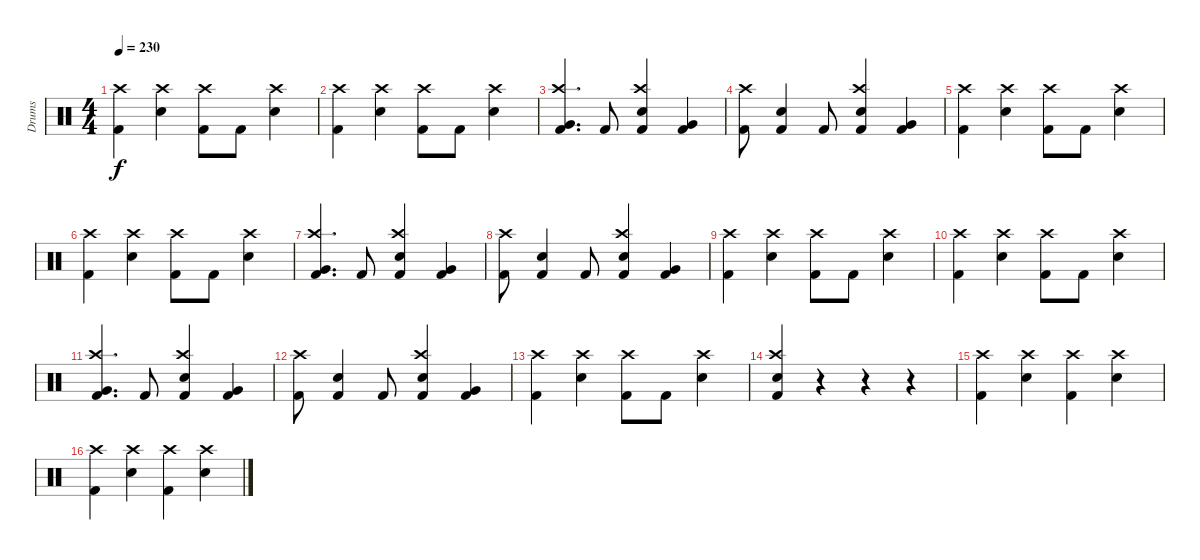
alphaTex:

\track ("Drums" "Drums") {instrument percussion}
\staff {score}
\articulation defaults
\ts (4 4)
\tempo 230
\clef neutral
\ks c
("Kick (hit) 2" "Crash high (hit)").4{dy f} ("Snare (hit) 2" "Crash high (hit)").4 ("Kick (hit) 2" "Crash high (hit)").8 "Kick (hit) 2".8 ("Snare (hit) 2" "Crash high (hit)").4 |
("Kick (hit) 2" "Crash high (hit)").4 ("Snare (hit) 2" "Crash high (hit)").4 ("Kick (hit) 2" "Crash high (hit)").8 "Kick (hit) 2".8 ("Snare (hit) 2" "Crash high (hit)").4 |
("Very Low Tom (hit)" "Kick (hit) 2" "Crash high (hit)").4{d} "Kick (hit) 2".8 ("Snare (hit) 2" "Kick (hit) 2" "Crash high (hit)").4 ("Very Low Tom (hit)" "Kick (hit) 2").4 |
("Kick (hit) 2" "Crash high (hit)").8 ("Snare (hit) 2" "Kick (hit) 2").4 "Kick (hit) 2".8 ("Snare (hit) 2" "Kick (hit) 2" "Crash high (hit)").4 ("Very Low Tom (hit)" "Kick (hit) 2").4 |
("Kick (hit) 2" "Crash high (hit)").4 ("Snare (hit) 2" "Crash high (hit)").4 ("Kick (hit) 2" "Crash high (hit)").8 "Kick (hit) 2".8 ("Snare (hit) 2" "Crash high (hit)").4 |
("Kick (hit) 2" "Crash high (hit)").4 ("Snare (hit) 2" "Crash high (hit)").4 ("Kick (hit) 2" "Crash high (hit)").8 "Kick (hit) 2".8 ("Snare (hit) 2" "Crash high (hit)").4 |
("Very Low Tom (hit)" "Kick (hit) 2" "Crash high (hit)").4{d} "Kick (hit) 2".8 ("Snare (hit) 2" "Kick (hit) 2" "Crash high (hit)").4 ("Very Low Tom (hit)" "Kick (hit) 2").4 |
("Kick (hit) 2" "Crash high (hit)").8 ("Snare (hit) 2" "Kick (hit) 2").4 "Kick (hit) 2".8 ("Snare (hit) 2" "Kick (hit) 2" "Crash high (hit)").4 ("Very Low Tom (hit)" "Kick (hit) 2").4 |
("Kick (hit) 2" "Crash high (hit)").4 ("Snare (hit) 2" "Crash high (hit)").4 ("Kick (hit) 2" "Crash high (hit)").8 "Kick (hit) 2".8 ("Snare (hit) 2" "Crash high (hit)").4 |
("Kick (hit) 2" "Crash high (hit)").4 ("Snare (hit) 2" "Crash high (hit)").4 ("Kick (hit) 2" "Crash high (hit)").8 "Kick (hit) 2".8 ("Snare (hit) 2" "Crash high (hit)").4 |
("Very Low Tom (hit)" "Kick (hit) 2" "Crash high (hit)").4{d} "Kick (hit) 2".8 ("Snare (hit) 2" "Kick (hit) 2" "Crash high (hit)").4 ("Very Low Tom (hit)" "Kick (hit) 2").4 |
("Kick (hit) 2" "Crash high (hit)").8 ("Snare (hit) 2" "Kick (hit) 2").4 "Kick (hit) 2".8 ("Snare (hit) 2" "Kick (hit) 2" "Crash high (hit)").4 ("Very Low Tom (hit)" "Kick (hit) 2").4 |
("Kick (hit) 2" "Crash high (hit)").4 ("Snare (hit) 2" "Crash high (hit)").4 ("Kick (hit) 2" "Crash high (hit)").8 "Kick (hit) 2".8 ("Snare (hit) 2" "Crash high (hit)").4 |
("Snare (hit) 2" "Kick (hit) 2" "Crash high (hit)").4 r.4 r.4 r.4 |
("Kick (hit) 2" "Crash high (hit)").4 ("Snare (hit) 2" "Crash high (hit)").4 ("Kick (hit) 2" "Crash high (hit)").4 ("Snare (hit) 2" "Crash high (hit)").4 |
("Kick (hit) 2" "Crash high (hit)").4 ("Snare (hit) 2" "Crash high (hit)").4 ("Kick (hit) 2" "Crash high (hit)").4 ("Snare (hit) 2" "Crash high (hit)").4
